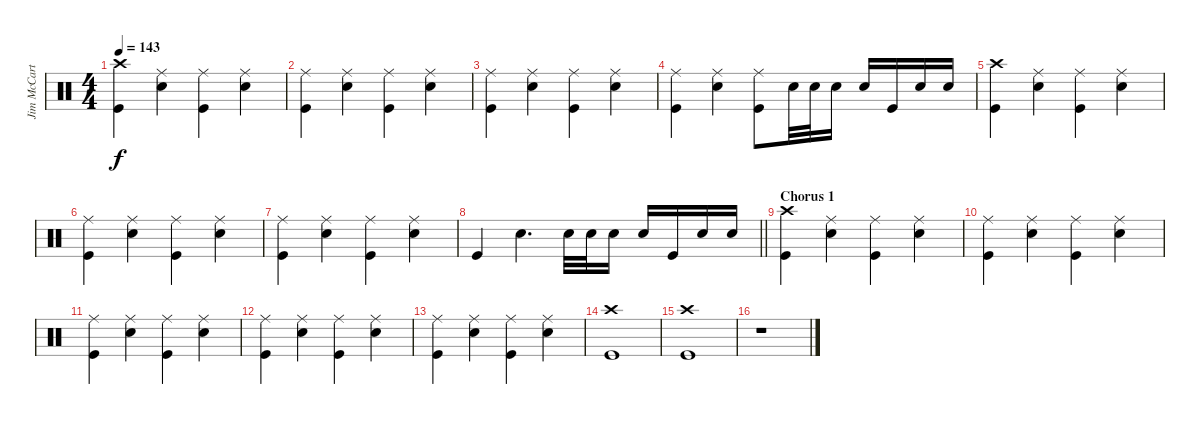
\track ("Jim McCarty" "Jim McCart") {instrument percussion}
\staff {score}
\articulation defaults
\ts (4 4)
\tempo 143
\clef neutral
\ks c
("Crash high (hit)" "Kick (hit)").4{dy f} ("Ride (middle)" "Electric Snare (hit)").4 ("Ride (middle)" "Kick (hit)").4 ("Ride (middle)" "Electric Snare (hit)").4 |
("Ride (middle)" "Kick (hit)").4 ("Ride (middle)" "Electric Snare (hit)").4 ("Ride (middle)" "Kick (hit)").4 ("Ride (middle)" "Electric Snare (hit)").4 |
("Ride (middle)" "Kick (hit)").4 ("Ride (middle)" "Electric Snare (hit)").4 ("Ride (middle)" "Kick (hit)").4 ("Ride (middle)" "Electric Snare (hit)").4 |
("Ride (middle)" "Kick (hit)").4 ("Ride (middle)" "Electric Snare (hit)").4 ("Ride (middle)" "Kick (hit)").8 "Electric Snare (hit)".32 "Electric Snare (hit)".32 "Electric Snare (hit)".16 "Electric Snare (hit)".16 "Kick (hit)".16 "Electric Snare (hit)".16 "Electric Snare (hit)".16 |
("Crash high (hit)" "Kick (hit)").4 ("Ride (middle)" "Electric Snare (hit)").4 ("Ride (middle)" "Kick (hit)").4 ("Ride (middle)" "Electric Snare (hit)").4 |
("Ride (middle)" "Kick (hit)").4 ("Ride (middle)" "Electric Snare (hit)").4 ("Ride (middle)" "Kick (hit)").4 ("Ride (middle)" "Electric Snare (hit)").4 |
("Ride (middle)" "Kick (hit)").4 ("Ride (middle)" "Electric Snare (hit)").4 ("Ride (middle)" "Kick (hit)").4 ("Ride (middle)" "Electric Snare (hit)").4 |
\barLineRight lightlight "Kick (hit)".4 "Electric Snare (hit)".4{d} "Electric Snare (hit)".32 "Electric Snare (hit)".32 "Electric Snare (hit)".16 "Electric Snare (hit)".16 "Kick (hit)".16 "Electric Snare (hit)".16 "Electric Snare (hit)".16
|
\section ("" "Chorus 1")
("Crash high (hit)" "Kick (hit)").4 ("Ride (middle)" "Electric Snare (hit)").4 ("Ride (middle)" "Kick (hit)").4 ("Ride (middle)" "Electric Snare (hit)").4 |
("Ride (middle)" "Kick (hit)").4 ("Ride (middle)" "Electric Snare (hit)").4 ("Ride (middle)" "Kick (hit)").4 ("Ride (middle)" "Electric Snare (hit)").4 |
("Ride (middle)" "Kick (hit)").4 ("Ride (middle)" "Electric Snare (hit)").4 ("Ride (middle)" "Kick (hit)").4 ("Ride (middle)" "Electric Snare (hit)").4 |
("Ride (middle)" "Kick (hit)").4 ("Ride (middle)" "Electric Snare (hit)").4 ("Ride (middle)" "Kick (hit)").4 ("Ride (middle)" "Electric Snare (hit)").4 |
("Ride (middle)" "Kick (hit)").4 ("Ride (middle)" "Electric Snare (hit)").4 ("Ride (middle)" "Kick (hit)").4 ("Ride (middle)" "Electric Snare (hit)").4 |
("Crash high (hit)" "Kick (hit)").1 |
("Crash high (hit)" "Kick (hit)").1 |
r.1
